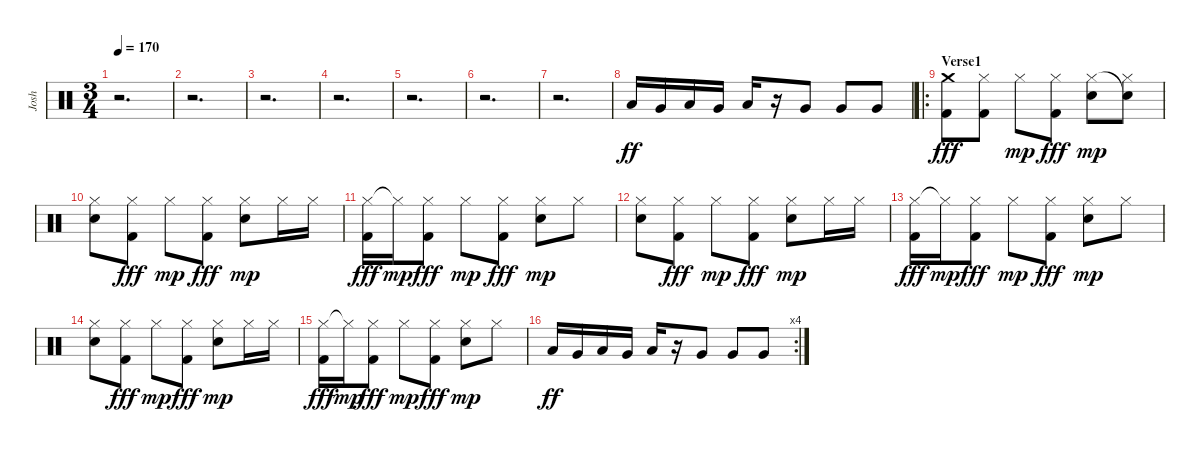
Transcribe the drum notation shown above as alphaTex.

\track ("Josh" "Josh") {instrument percussion}
\staff {score}
\articulation defaults
\ts (3 4)
\tempo 170
\clef neutral
\ks c
r.2{d dy ff} |
r.2{d} |
r.2{d} |
r.2{d} |
r.2{d} |
r.2{d} |
r.2{d} |
"Low Tom (hit)".16 "Very Low Tom (hit)".16 "Low Tom (hit)".16 "Very Low Tom (hit)".16 "Low Tom (hit)".16 r.16 "Very Low Tom (hit)".8 "Very Low Tom (hit)".8 "Very Low Tom (hit)".8 |
\ro
\section ("" "Verse1")
("Crash medium (hit)" "Kick (hit) 2").8{dy fff} ("Hi-Hat (closed)" "Kick (hit) 2").8 "Hi-Hat (closed)".8{dy mp} ("Hi-Hat (closed)" "Kick (hit) 2").8{dy fff} ("Hi-Hat (closed)" "Electric Snare (hit)").8{dy mp} ("Snare (hit)"{t} "Hi-Hat (closed)").8 |
("Hi-Hat (closed)" "Electric Snare (hit)").8 ("Hi-Hat (closed)" "Kick (hit) 2").8{dy fff} "Hi-Hat (closed)".8{dy mp} ("Hi-Hat (closed)" "Kick (hit) 2").8{dy fff} ("Hi-Hat (closed)" "Electric Snare (hit)").8{dy mp} "Hi-Hat (closed)".16 "Hi-Hat (closed)".16 |
("Hi-Hat (closed)" "Kick (hit) 2").16{dy fff} "Hi-Hat (closed)"{t}.16{dy mp} ("Hi-Hat (closed)" "Kick (hit) 2").8{dy fff} "Hi-Hat (closed)".8{dy mp} ("Hi-Hat (closed)" "Kick (hit) 2").8{dy fff} ("Hi-Hat (closed)" "Electric Snare (hit)").8{dy mp} "Hi-Hat (closed)".8 |
("Hi-Hat (closed)" "Electric Snare (hit)").8 ("Hi-Hat (closed)" "Kick (hit) 2").8{dy fff} "Hi-Hat (closed)".8{dy mp} ("Hi-Hat (closed)" "Kick (hit) 2").8{dy fff} ("Hi-Hat (closed)" "Electric Snare (hit)").8{dy mp} "Hi-Hat (closed)".16 "Hi-Hat (closed)".16 |
("Hi-Hat (closed)" "Kick (hit) 2").16{dy fff} "Hi-Hat (closed)"{t}.16{dy mp} ("Hi-Hat (closed)" "Kick (hit) 2").8{dy fff} "Hi-Hat (closed)".8{dy mp} ("Hi-Hat (closed)" "Kick (hit) 2").8{dy fff} ("Hi-Hat (closed)" "Electric Snare (hit)").8{dy mp} "Hi-Hat (closed)".8 |
("Hi-Hat (closed)" "Electric Snare (hit)").8 ("Hi-Hat (closed)" "Kick (hit) 2").8{dy fff} "Hi-Hat (closed)".8{dy mp} ("Hi-Hat (closed)" "Kick (hit) 2").8{dy fff} ("Hi-Hat (closed)" "Electric Snare (hit)").8{dy mp} "Hi-Hat (closed)".16 "Hi-Hat (closed)".16 |
("Hi-Hat (closed)" "Kick (hit) 2").16{dy fff} "Hi-Hat (closed)"{t}.16{dy mp} ("Hi-Hat (closed)" "Kick (hit) 2").8{dy fff} "Hi-Hat (closed)".8{dy mp} ("Hi-Hat (closed)" "Kick (hit) 2").8{dy fff} ("Hi-Hat (closed)" "Electric Snare (hit)").8{dy mp} "Hi-Hat (closed)".8 |
\rc 4 "Low Tom (hit)".16{dy ff} "Very Low Tom (hit)".16 "Low Tom (hit)".16 "Very Low Tom (hit)".16 "Low Tom (hit)".16
r.16 "Very Low Tom (hit)".8 "Very Low Tom (hit)".8 "Very Low Tom (hit)".8
